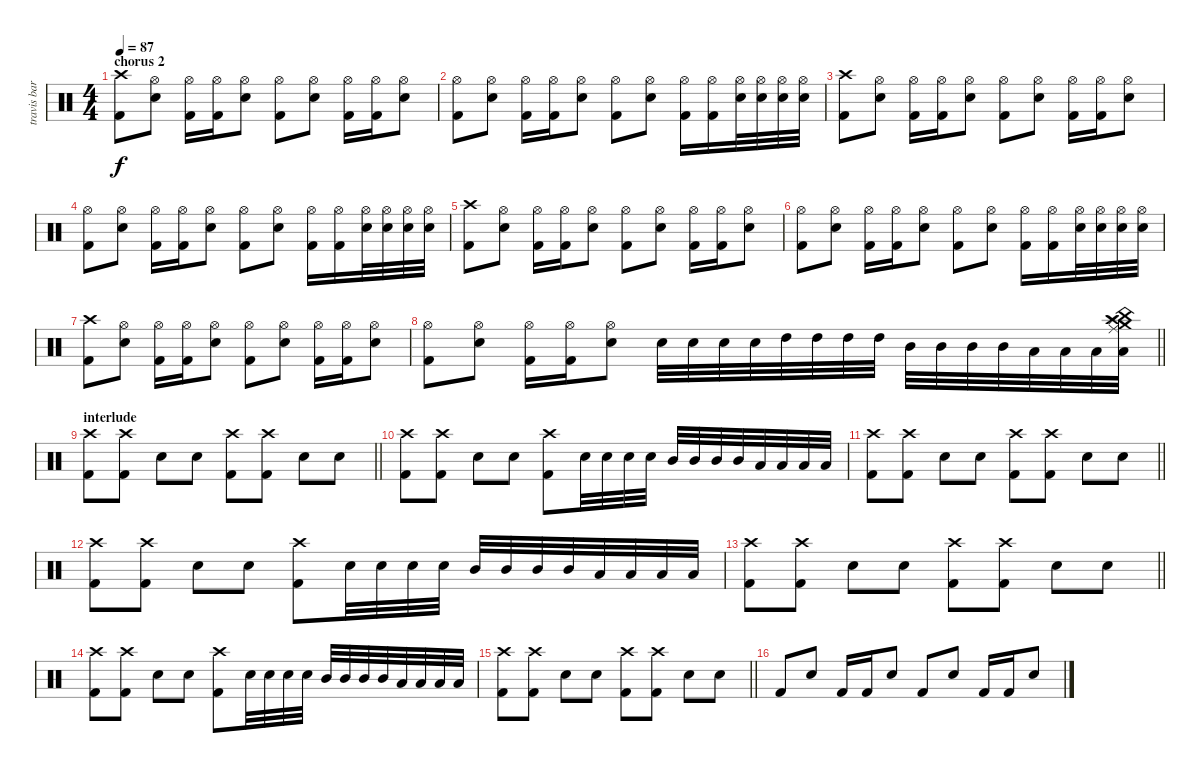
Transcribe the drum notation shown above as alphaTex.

\track ("travis barker" "travis bar") {instrument percussion}
\staff {score}
\articulation defaults
\ts (4 4)
\section ("" "chorus 2")
\tempo 87
\clef neutral
\ks c
("Crash high (hit)" "Kick (hit) 2").8{dy f} ("Hi-Hat (open)" "Snare (hit) 2").8 ("Hi-Hat (open)" "Kick (hit) 2").16 ("Hi-Hat (open)" "Kick (hit) 2").16 ("Hi-Hat (open)" "Snare (hit) 2").8 ("Hi-Hat (open)" "Kick (hit) 2").8 ("Hi-Hat (open)" "Snare (hit) 2").8 ("Hi-Hat (open)" "Kick (hit) 2").16 ("Hi-Hat (open)" "Kick (hit) 2").16 ("Hi-Hat (open)" "Snare (hit) 2").8 |
("Hi-Hat (open)" "Kick (hit) 2").8 ("Hi-Hat (open)" "Snare (hit) 2").8 ("Hi-Hat (open)" "Kick (hit) 2").16 ("Hi-Hat (open)" "Kick (hit) 2").16 ("Hi-Hat (open)" "Snare (hit) 2").8 ("Hi-Hat (open)" "Kick (hit) 2").8 ("Hi-Hat (open)" "Snare (hit) 2").8 ("Hi-Hat (open)" "Kick (hit) 2").16 ("Hi-Hat (open)" "Kick (hit) 2").16 ("Hi-Hat (open)" "Snare (hit) 2").32 ("Hi-Hat (open)" "Snare (hit) 2").32 ("Hi-Hat (open)" "Snare (hit) 2").32 ("Hi-Hat (open)" "Snare (hit) 2").32 |
("Crash high (hit)" "Kick (hit) 2").8 ("Hi-Hat (open)" "Snare (hit) 2").8 ("Hi-Hat (open)" "Kick (hit) 2").16 ("Hi-Hat (open)" "Kick (hit) 2").16 ("Hi-Hat (open)" "Snare (hit) 2").8 ("Hi-Hat (open)" "Kick (hit) 2").8 ("Hi-Hat (open)" "Snare (hit) 2").8 ("Hi-Hat (open)" "Kick (hit) 2").16 ("Hi-Hat (open)" "Kick (hit) 2").16 ("Hi-Hat (open)" "Snare (hit) 2").8 |
("Hi-Hat (open)" "Kick (hit) 2").8 ("Hi-Hat (open)" "Snare (hit) 2").8 ("Hi-Hat (open)" "Kick (hit) 2").16 ("Hi-Hat (open)" "Kick (hit) 2").16 ("Hi-Hat (open)" "Snare (hit) 2").8 ("Hi-Hat (open)" "Kick (hit) 2").8 ("Hi-Hat (open)" "Snare (hit) 2").8 ("Hi-Hat (open)" "Kick (hit) 2").16 ("Hi-Hat (open)" "Kick (hit) 2").16 ("Hi-Hat (open)" "Snare (hit) 2").32 ("Hi-Hat (open)" "Snare (hit) 2").32 ("Hi-Hat (open)" "Snare (hit) 2").32 ("Hi-Hat (open)" "Snare (hit) 2").32 |
("Crash high (hit)" "Kick (hit) 2").8 ("Hi-Hat (open)" "Snare (hit) 2").8 ("Hi-Hat (open)" "Kick (hit) 2").16 ("Hi-Hat (open)" "Kick (hit) 2").16 ("Hi-Hat (open)" "Snare (hit) 2").8 ("Hi-Hat (open)" "Kick (hit) 2").8 ("Hi-Hat (open)" "Snare (hit) 2").8 ("Hi-Hat (open)" "Kick (hit) 2").16 ("Hi-Hat (open)" "Kick (hit) 2").16 ("Hi-Hat (open)" "Snare (hit) 2").8 |
("Hi-Hat (open)" "Kick (hit) 2").8 ("Hi-Hat (open)" "Snare (hit) 2").8 ("Hi-Hat (open)" "Kick (hit) 2").16 ("Hi-Hat (open)" "Kick (hit) 2").16 ("Hi-Hat (open)" "Snare (hit) 2").8 ("Hi-Hat (open)" "Kick (hit) 2").8 ("Hi-Hat (open)" "Snare (hit) 2").8 ("Hi-Hat (open)" "Kick (hit) 2").16 ("Hi-Hat (open)" "Kick (hit) 2").16 ("Hi-Hat (open)" "Snare (hit) 2").32 ("Hi-Hat (open)" "Snare (hit) 2").32 ("Hi-Hat (open)" "Snare (hit) 2").32 ("Hi-Hat (open)" "Snare (hit) 2").32 |
("Crash high (hit)" "Kick (hit) 2").8 ("Hi-Hat (open)" "Snare (hit) 2").8 ("Hi-Hat (open)" "Kick (hit) 2").16 ("Hi-Hat (open)" "Kick (hit) 2").16 ("Hi-Hat (open)" "Snare (hit) 2").8 ("Hi-Hat (open)" "Kick (hit) 2").8 ("Hi-Hat (open)" "Snare (hit) 2").8 ("Hi-Hat (open)" "Kick (hit) 2").16 ("Hi-Hat (open)" "Kick (hit) 2").16 ("Hi-Hat (open)" "Snare (hit) 2").8 |
\barLineRight lightlight
("Hi-Hat (open)" "Kick (hit) 2").8 ("Hi-Hat (open)" "Snare (hit) 2").8 ("Hi-Hat (open)" "Kick (hit) 2").16 ("Hi-Hat (open)" "Kick (hit) 2").16 ("Hi-Hat (open)" "Snare (hit) 2").8 "Snare (hit) 2".32 "Snare (hit) 2".32 "Snare (hit) 2".32 "Snare (hit) 2".32 "High Tom (hit)".32 "High Tom (hit)".32 "High Tom (hit)".32 "High Tom (hit)".32 "Mid Tom (hit)".32 "Mid Tom (hit)".32 "Mid Tom (hit)".32 "Mid Tom (hit)".32 "Low Tom (hit)".32 "Low Tom (hit)".32 "Low Tom (hit)".32 ("Crash high (hit)" "Ride (middle)" "China (hit)" "Low Tom (hit)" "Splash (hit)" "Crash medium (hit)").32 |
\section ("" "interlude")
\barLineRight lightlight
("Crash high (hit)" "Kick (hit) 2").8 ("Crash high (hit)" "Kick (hit) 2").8 "Snare (hit) 2".8 "Snare (hit) 2".8 ("Crash high (hit)" "Kick (hit) 2").8 ("Crash high (hit)" "Kick (hit) 2").8 "Snare (hit) 2".8 "Snare (hit) 2".8 |
("Crash high (hit)" "Kick (hit) 2").8 ("Crash high (hit)" "Kick (hit) 2").8 "Snare (hit) 2".8 "Snare (hit) 2".8 ("Crash high (hit)" "Kick (hit) 2").8 "Snare (hit) 2".32 "Snare (hit) 2".32 "Snare (hit) 2".32 "Snare (hit) 2".32 "Mid Tom (hit)".32 "Mid Tom (hit)".32 "Mid Tom (hit)".32 "Mid Tom (hit)".32 "Low Tom (hit)".32 "Low Tom (hit)".32 "Low Tom (hit)".32 "Low Tom (hit)".32 |
\barLineRight lightlight
("Crash high (hit)" "Kick (hit) 2").8 ("Crash high (hit)" "Kick (hit) 2").8 "Snare (hit) 2".8 "Snare (hit) 2".8 ("Crash high (hit)" "Kick (hit) 2").8 ("Crash high (hit)" "Kick (hit) 2").8 "Snare (hit) 2".8 "Snare (hit) 2".8 |
("Crash high (hit)" "Kick (hit) 2").8 ("Crash high (hit)" "Kick (hit) 2").8 "Snare (hit) 2".8 "Snare (hit) 2".8 ("Crash high (hit)" "Kick (hit) 2").8 "Snare (hit) 2".32 "Snare (hit) 2".32 "Snare (hit) 2".32 "Snare (hit) 2".32 "Mid Tom (hit)".32 "Mid Tom (hit)".32 "Mid Tom (hit)".32 "Mid Tom (hit)".32 "Low Tom (hit)".32 "Low Tom (hit)".32 "Low Tom (hit)".32 "Low Tom (hit)".32 |
\barLineRight lightlight
("Crash high (hit)" "Kick (hit) 2").8 ("Crash high (hit)" "Kick (hit) 2").8 "Snare (hit) 2".8 "Snare (hit) 2".8 ("Crash high (hit)" "Kick (hit) 2").8 ("Crash high (hit)" "Kick (hit) 2").8 "Snare (hit) 2".8 "Snare (hit) 2".8 |
("Crash high (hit)" "Kick (hit) 2").8 ("Crash high (hit)" "Kick (hit) 2").8 "Snare (hit) 2".8 "Snare (hit) 2".8 ("Crash high (hit)" "Kick (hit) 2").8 "Snare (hit) 2".32 "Snare (hit) 2".32 "Snare (hit) 2".32 "Snare (hit) 2".32 "Mid Tom (hit)".32 "Mid Tom (hit)".32 "Mid Tom (hit)".32 "Mid Tom (hit)".32 "Low Tom (hit)".32 "Low Tom (hit)".32 "Low Tom (hit)".32 "Low Tom (hit)".32 |
\barLineRight lightlight
("Crash high (hit)" "Kick (hit) 2").8 ("Crash high (hit)" "Kick (hit) 2").8 "Snare (hit) 2".8 "Snare (hit) 2".8 ("Crash high (hit)" "Kick (hit) 2").8 ("Crash high (hit)" "Kick (hit) 2").8 "Snare (hit) 2".8 "Snare (hit) 2".8 |
"Kick (hit) 2".8 "Snare (hit) 2".8 "Kick (hit) 2".16 "Kick (hit) 2".16 "Snare (hit) 2".8 "Kick (hit) 2".8 "Snare (hit) 2".8 "Kick (hit) 2".16 "Kick (hit) 2".16 "Snare (hit) 2".8
